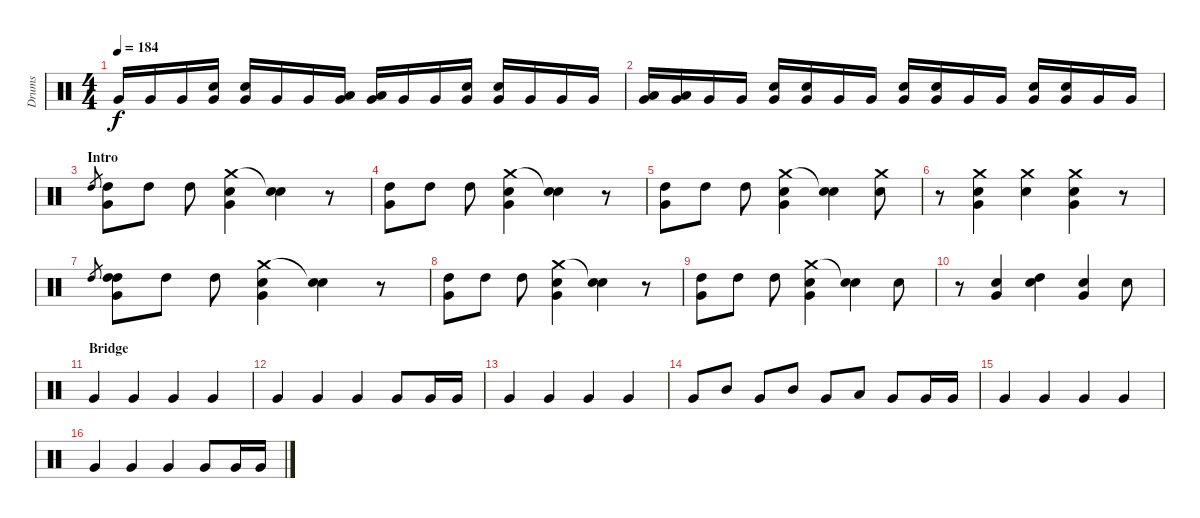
\track ("Drums" "Drums") {instrument percussion}
\staff {score}
\articulation defaults
\ts (4 4)
\tempo 184
\clef neutral
\ks c "Very Low Tom (hit)".16{dy f} "Very Low Tom (hit)".16 "Very Low Tom (hit)".16
("Electric Snare (hit)" "Very Low Tom (hit)").16 ("Electric Snare (hit)" "Very Low Tom (hit)").16 "Very Low Tom (hit)".16 "Very Low Tom (hit)".16 ("Low Tom (hit)" "Very Low Tom (hit)").16 ("Low Tom (hit)" "Very Low Tom (hit)").16 "Very Low Tom (hit)".16 "Very Low Tom (hit)".16 ("Electric Snare (hit)" "Very Low Tom (hit)").16 ("Electric Snare (hit)" "Very Low Tom (hit)").16 "Very Low Tom (hit)".16 "Very Low Tom (hit)".16 "Very Low Tom (hit)".16 |
("Low Tom (hit)" "Very Low Tom (hit)").16 ("Low Tom (hit)" "Very Low Tom (hit)").16 "Very Low Tom (hit)".16 "Very Low Tom (hit)".16 ("Electric Snare (hit)" "Very Low Tom (hit)").16 ("Electric Snare (hit)" "Very Low Tom (hit)").16 "Very Low Tom (hit)".16 "Very Low Tom (hit)".16 ("Electric Snare (hit)" "Very Low Tom (hit)").16 ("Electric Snare (hit)" "Very Low Tom (hit)").16 "Very Low Tom (hit)".16 "Very Low Tom (hit)".16 ("Electric Snare (hit)" "Very Low Tom (hit)").16 ("Electric Snare (hit)" "Very Low Tom (hit)").16 "Very Low Tom (hit)".16 "Very Low Tom (hit)".16 |
\section ("" "Intro")
"High Tom (hit)".8{gr} ("High Tom (hit)" "Very Low Tom (hit)").8 "High Tom (hit)".8 "High Tom (hit)".8 ("Crash medium (hit)" "Electric Snare (hit)" "Very Low Tom (hit)").4 ("Snare (hit)"{t} "Electric Snare (hit)").4 r.8 |
("High Tom (hit)" "Very Low Tom (hit)").8 "High Tom (hit)".8 "High Tom (hit)".8 ("Crash medium (hit)" "Electric Snare (hit)" "Very Low Tom (hit)").4 ("Snare (hit)"{t} "Electric Snare (hit)").4 r.8 |
("High Tom (hit)" "Very Low Tom (hit)").8 "High Tom (hit)".8 "High Tom (hit)".8 ("Crash medium (hit)" "Electric Snare (hit)" "Very Low Tom (hit)").4 ("Snare (hit)"{t} "Electric Snare (hit)").4 ("Crash medium (hit)" "Electric Snare (hit)").8 |
r.8 ("Crash medium (hit)" "Electric Snare (hit)" "Very Low Tom (hit)").4 ("Crash medium (hit)" "Snare (hit) 2").4 ("Crash medium (hit)" "Electric Snare (hit)" "Very Low Tom (hit)").4 r.8 |
"High Tom (hit)".8{gr} ("High Tom (hit)" "High Tom (hit)" "Very Low Tom (hit)").8 "High Tom (hit)".8 "High Tom (hit)".8 ("Crash medium (hit)" "Electric Snare (hit)" "Very Low Tom (hit)").4 ("Snare (hit)"{t} "Electric Snare (hit)").4 r.8 |
("High Tom (hit)" "Very Low Tom (hit)").8 "High Tom (hit)".8 "High Tom (hit)".8 ("Crash medium (hit)" "Electric Snare (hit)" "Very Low Tom (hit)").4 ("Snare (hit)"{t} "Electric Snare (hit)").4 r.8 |
("High Tom (hit)" "Very Low Tom (hit)").8 "High Tom (hit)".8 "High Tom (hit)".8 ("Crash medium (hit)" "Electric Snare (hit)" "Very Low Tom (hit)").4 ("Snare (hit)"{t} "Electric Snare (hit)").4 "Electric Snare (hit)".8 |
r.8 ("Electric Snare (hit)" "Very Low Tom (hit)").4 ("Snare (hit) 2" "High Tom (hit)").4 ("Electric Snare (hit)" "Very Low Tom (hit)").4 "Electric Snare (hit)".8 |
\section ("" "Bridge")
"Very Low Tom (hit)".4 "Very Low Tom (hit)".4 "Very Low Tom (hit)".4 "Very Low Tom (hit)".4 |
"Very Low Tom (hit)".4 "Very Low Tom (hit)".4 "Very Low Tom (hit)".4 "Very Low Tom (hit)".8 "Very Low Tom (hit)".16 "Very Low Tom (hit)".16 |
"Very Low Tom (hit)".4 "Very Low Tom (hit)".4 "Very Low Tom (hit)".4 "Very Low Tom (hit)".4 |
"Very Low Tom (hit)".8 "Mid Tom (hit)".8 "Very Low Tom (hit)".8 "Mid Tom (hit)".8 "Very Low Tom (hit)".8 "Low Tom (hit)".8 "Very Low Tom (hit)".8 "Very Low Tom (hit)".16 "Very Low Tom (hit)".16 |
"Very Low Tom (hit)".4 "Very Low Tom (hit)".4 "Very Low Tom (hit)".4 "Very Low Tom (hit)".4 |
"Very Low Tom (hit)".4 "Very Low Tom (hit)".4 "Very Low Tom (hit)".4 "Very Low Tom (hit)".8 "Very Low Tom (hit)".16 "Very Low Tom (hit)".16
